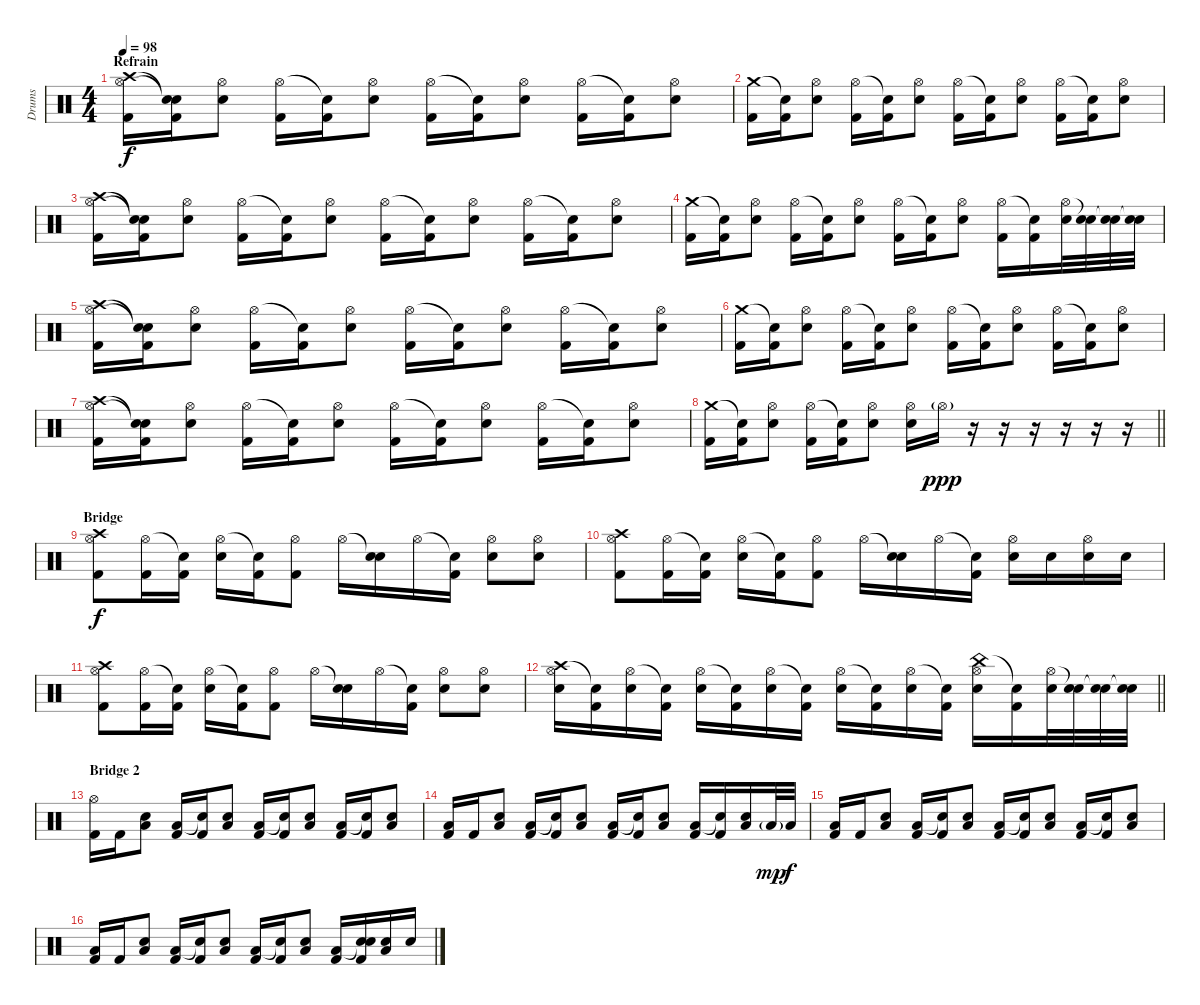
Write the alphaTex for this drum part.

\track ("Drums" "Drums") {instrument percussion}
\staff {score}
\articulation defaults
\ts (4 4)
\section ("" "Refrain")
\tempo 98
\clef neutral
\ks c
("Crash high (hit)" "Hi-Hat (open)" "Kick (hit) 2").16{dy f} ("Snare (hit)"{t} "Snare (hit)"{t} "Kick (hit) 2").16 ("Hi-Hat (open)" "Snare (hit) 2").8 ("Hi-Hat (open)" "Kick (hit) 2").16 ("Snare (hit)"{t} "Kick (hit) 2").16 ("Hi-Hat (open)" "Snare (hit) 2").8 ("Hi-Hat (open)" "Kick (hit) 2").16 ("Snare (hit)"{t} "Kick (hit) 2").16 ("Hi-Hat (open)" "Snare (hit) 2").8 ("Hi-Hat (open)" "Kick (hit) 2").16 ("Snare (hit)"{t} "Kick (hit) 2").16 ("Hi-Hat (open)" "Snare (hit) 2").8 |
("Crash medium (hit)" "Kick (hit) 2").16 ("Snare (hit)"{t} "Kick (hit) 2").16 ("Hi-Hat (open)" "Snare (hit) 2").8 ("Hi-Hat (open)" "Kick (hit) 2").16 ("Snare (hit)"{t} "Kick (hit) 2").16 ("Hi-Hat (open)" "Snare (hit) 2").8 ("Hi-Hat (open)" "Kick (hit) 2").16 ("Snare (hit)"{t} "Kick (hit) 2").16 ("Hi-Hat (open)" "Snare (hit) 2").8 ("Hi-Hat (open)" "Kick (hit) 2").16 ("Snare (hit)"{t} "Kick (hit) 2").16 ("Hi-Hat (open)" "Snare (hit) 2").8 |
("Crash high (hit)" "Hi-Hat (open)" "Kick (hit) 2").16 ("Snare (hit)"{t} "Snare (hit)"{t} "Kick (hit) 2").16 ("Hi-Hat (open)" "Snare (hit) 2").8 ("Hi-Hat (open)" "Kick (hit) 2").16 ("Snare (hit)"{t} "Kick (hit) 2").16 ("Hi-Hat (open)" "Snare (hit) 2").8 ("Hi-Hat (open)" "Kick (hit) 2").16 ("Snare (hit)"{t} "Kick (hit) 2").16 ("Hi-Hat (open)" "Snare (hit) 2").8 ("Hi-Hat (open)" "Kick (hit) 2").16 ("Snare (hit)"{t} "Kick (hit) 2").16 ("Hi-Hat (open)" "Snare (hit) 2").8 |
("Crash medium (hit)" "Kick (hit) 2").16 ("Snare (hit)"{t} "Kick (hit) 2").16 ("Hi-Hat (open)" "Snare (hit) 2").8 ("Hi-Hat (open)" "Kick (hit) 2").16 ("Snare (hit)"{t} "Kick (hit) 2").16 ("Hi-Hat (open)" "Snare (hit) 2").8 ("Hi-Hat (open)" "Kick (hit) 2").16 ("Snare (hit)"{t} "Kick (hit) 2").16 ("Hi-Hat (open)" "Snare (hit) 2").8 ("Hi-Hat (open)" "Kick (hit) 2").16 ("Snare (hit)"{t} "Kick (hit) 2").16 ("Hi-Hat (open)" "Snare (hit) 2").32 ("Snare (hit)"{t} "Snare (hit) 2").32 ("Snare (hit)"{t} "Snare (hit) 2").32 ("Snare (hit)"{t} "Snare (hit) 2").32 |
("Crash high (hit)" "Hi-Hat (open)" "Kick (hit) 2").16 ("Snare (hit)"{t} "Snare (hit)"{t} "Kick (hit) 2").16 ("Hi-Hat (open)" "Snare (hit) 2").8 ("Hi-Hat (open)" "Kick (hit) 2").16 ("Snare (hit)"{t} "Kick (hit) 2").16 ("Hi-Hat (open)" "Snare (hit) 2").8 ("Hi-Hat (open)" "Kick (hit) 2").16 ("Snare (hit)"{t} "Kick (hit) 2").16 ("Hi-Hat (open)" "Snare (hit) 2").8 ("Hi-Hat (open)" "Kick (hit) 2").16 ("Snare (hit)"{t} "Kick (hit) 2").16 ("Hi-Hat (open)" "Snare (hit) 2").8 |
("Crash medium (hit)" "Kick (hit) 2").16 ("Snare (hit)"{t} "Kick (hit) 2").16 ("Hi-Hat (open)" "Snare (hit) 2").8 ("Hi-Hat (open)" "Kick (hit) 2").16 ("Snare (hit)"{t} "Kick (hit) 2").16 ("Hi-Hat (open)" "Snare (hit) 2").8 ("Hi-Hat (open)" "Kick (hit) 2").16 ("Snare (hit)"{t} "Kick (hit) 2").16 ("Hi-Hat (open)" "Snare (hit) 2").8 ("Hi-Hat (open)" "Kick (hit) 2").16 ("Snare (hit)"{t} "Kick (hit) 2").16 ("Hi-Hat (open)" "Snare (hit) 2").8 |
("Crash high (hit)" "Hi-Hat (open)" "Kick (hit) 2").16 ("Snare (hit)"{t} "Snare (hit)"{t} "Kick (hit) 2").16 ("Hi-Hat (open)" "Snare (hit) 2").8 ("Hi-Hat (open)" "Kick (hit) 2").16 ("Snare (hit)"{t} "Kick (hit) 2").16 ("Hi-Hat (open)" "Snare (hit) 2").8 ("Hi-Hat (open)" "Kick (hit) 2").16 ("Snare (hit)"{t} "Kick (hit) 2").16 ("Hi-Hat (open)" "Snare (hit) 2").8 ("Hi-Hat (open)" "Kick (hit) 2").16 ("Snare (hit)"{t} "Kick (hit) 2").16 ("Hi-Hat (open)" "Snare (hit) 2").8 |
\barLineRight lightlight
("Crash medium (hit)" "Kick (hit) 2").16 ("Snare (hit)"{t} "Kick (hit) 2").16 ("Hi-Hat (open)" "Snare (hit) 2").8 ("Hi-Hat (open)" "Kick (hit) 2").16 ("Snare (hit)"{t} "Kick (hit) 2").16 ("Hi-Hat (open)" "Snare (hit) 2").8 ("Hi-Hat (open)" "Snare (hit) 2").16 "Hi-Hat (open)"{g}.16{dy ppp} r.16 r.16 r.16 r.16 r.16 r.16 |
\section ("" "Bridge")
("Crash high (hit)" "Hi-Hat (open)" "Kick (hit) 2").8{dy f} ("Hi-Hat (open)" "Kick (hit) 2").16 ("Snare (hit)"{t} "Kick (hit) 2").16 ("Hi-Hat (open)" "Snare (hit) 2").16 ("Snare (hit)"{t} "Kick (hit) 2").16 ("Hi-Hat (open)" "Kick (hit) 2").8 "Hi-Hat (open)".16 ("Snare (hit)"{t} "Snare (hit) 2").16 "Hi-Hat (open)".16 ("Snare (hit)"{t} "Kick (hit) 2").16 ("Hi-Hat (open)" "Snare (hit) 2").8 ("Hi-Hat (open)" "Snare (hit) 2").8 |
("Crash high (hit)" "Hi-Hat (open)" "Kick (hit) 2").8 ("Hi-Hat (open)" "Kick (hit) 2").16 ("Snare (hit)"{t} "Kick (hit) 2").16 ("Hi-Hat (open)" "Snare (hit) 2").16 ("Snare (hit)"{t} "Kick (hit) 2").16 ("Hi-Hat (open)" "Kick (hit) 2").8 "Hi-Hat (open)".16 ("Snare (hit)"{t} "Snare (hit) 2").16 "Hi-Hat (open)".16 ("Snare (hit)"{t} "Kick (hit) 2").16 ("Hi-Hat (open)" "Snare (hit) 2").16 "Snare (hit) 2".16 ("Hi-Hat (open)" "Snare (hit) 2").16 "Snare (hit) 2".16 |
("Crash high (hit)" "Hi-Hat (open)" "Kick (hit) 2").8 ("Hi-Hat (open)" "Kick (hit) 2").16 ("Snare (hit)"{t} "Kick (hit) 2").16 ("Hi-Hat (open)" "Snare (hit) 2").16 ("Snare (hit)"{t} "Kick (hit) 2").16 ("Hi-Hat (open)" "Kick (hit) 2").8 "Hi-Hat (open)".16 ("Snare (hit)"{t} "Snare (hit) 2").16 "Hi-Hat (open)".16 ("Snare (hit)"{t} "Kick (hit) 2").16 ("Hi-Hat (open)" "Snare (hit) 2").8 ("Hi-Hat (open)" "Snare (hit) 2").8 |
\barLineRight lightlight
("Crash high (hit)" "Hi-Hat (open)" "Snare (hit) 2").16 ("Snare (hit)"{t} "Kick (hit) 2").16 ("Hi-Hat (open)" "Snare (hit) 2").16 ("Snare (hit)"{t} "Kick (hit) 2").16 ("Hi-Hat (open)" "Snare (hit) 2").16 ("Snare (hit)"{t} "Kick (hit) 2").16 ("Hi-Hat (open)" "Snare (hit) 2").16 ("Snare (hit)"{t} "Kick (hit) 2").16 ("Hi-Hat (open)" "Snare (hit) 2").16 ("Snare (hit)"{t} "Kick (hit) 2").16 ("Hi-Hat (open)" "Snare (hit) 2").16 ("Snare (hit)"{t} "Kick (hit) 2").16 ("China (hit)" "Hi-Hat (open)" "Snare (hit) 2").16 ("Snare (hit)"{t} "Kick (hit) 2").16 ("Hi-Hat (open)" "Snare (hit) 2").32 ("Snare (hit)"{t} "Snare (hit) 2").32 ("Snare (hit)"{t} "Snare (hit) 2").32 ("Snare (hit)"{t} "Snare (hit) 2").32 |
\section ("" "Bridge 2")
("Hi-Hat (open)" "Kick (hit) 2").16 "Kick (hit) 2".16 ("Low Floor Tom (hit)" "Snare (hit) 2").8 ("Low Floor Tom (hit)" "Kick (hit) 2").16 ("Snare (hit)"{t} "Kick (hit) 2").16 ("Low Floor Tom (hit)" "Snare (hit) 2").8 ("Low Floor Tom (hit)" "Kick (hit) 2").16 ("Snare (hit)"{t} "Kick (hit) 2").16 ("Low Floor Tom (hit)" "Snare (hit) 2").8 ("Low Floor Tom (hit)" "Kick (hit) 2").16 ("Snare (hit)"{t} "Kick (hit) 2").16 ("Low Floor Tom (hit)" "Snare (hit) 2").8 |
("Low Floor Tom (hit)" "Kick (hit) 2").16 "Kick (hit) 2".16 ("Low Floor Tom (hit)" "Snare (hit) 2").8 ("Low Floor Tom (hit)" "Kick (hit) 2").16 ("Snare (hit)"{t} "Kick (hit) 2").16 ("Low Floor Tom (hit)" "Snare (hit) 2").8 ("Low Floor Tom (hit)" "Kick (hit) 2").16 ("Snare (hit)"{t} "Kick (hit) 2").16 ("Low Floor Tom (hit)" "Snare (hit) 2").8 ("Low Floor Tom (hit)" "Kick (hit) 2").16 ("Snare (hit)"{t} "Kick (hit) 2").16 ("Low Floor Tom (hit)" "Snare (hit) 2").16 "Low Floor Tom (hit)"{g}.32{dy mp} "Low Floor Tom (hit)".32{dy f} |
("Low Floor Tom (hit)" "Kick (hit) 2").16 "Kick (hit) 2".16 ("Low Floor Tom (hit)" "Snare (hit) 2").8 ("Low Floor Tom (hit)" "Kick (hit) 2").16 ("Snare (hit)"{t} "Kick (hit) 2").16 ("Low Floor Tom (hit)" "Snare (hit) 2").8 ("Low Floor Tom (hit)" "Kick (hit) 2").16 ("Snare (hit)"{t} "Kick (hit) 2").16 ("Low Floor Tom (hit)" "Snare (hit) 2").8 ("Low Floor Tom (hit)" "Kick (hit) 2").16 ("Snare (hit)"{t} "Kick (hit) 2").16 ("Low Floor Tom (hit)" "Snare (hit) 2").8 |
("Low Floor Tom (hit)" "Kick (hit) 2").16 "Kick (hit) 2".16 ("Low Floor Tom (hit)" "Snare (hit) 2").8 ("Low Floor Tom (hit)" "Kick (hit) 2").16 ("Snare (hit)"{t} "Kick (hit) 2").16 ("Low Floor Tom (hit)" "Snare (hit) 2").8 ("Low Floor Tom (hit)" "Kick (hit) 2").16 ("Snare (hit)"{t} "Kick (hit) 2").16 ("Low Floor Tom (hit)" "Snare (hit) 2").8 ("Low Floor Tom (hit)" "Kick (hit) 2").16 ("Snare (hit)"{t} "Snare (hit) 2" "Kick (hit) 2").16 ("Low Floor Tom (hit)" "Snare (hit) 2").16 "Snare (hit) 2".16
